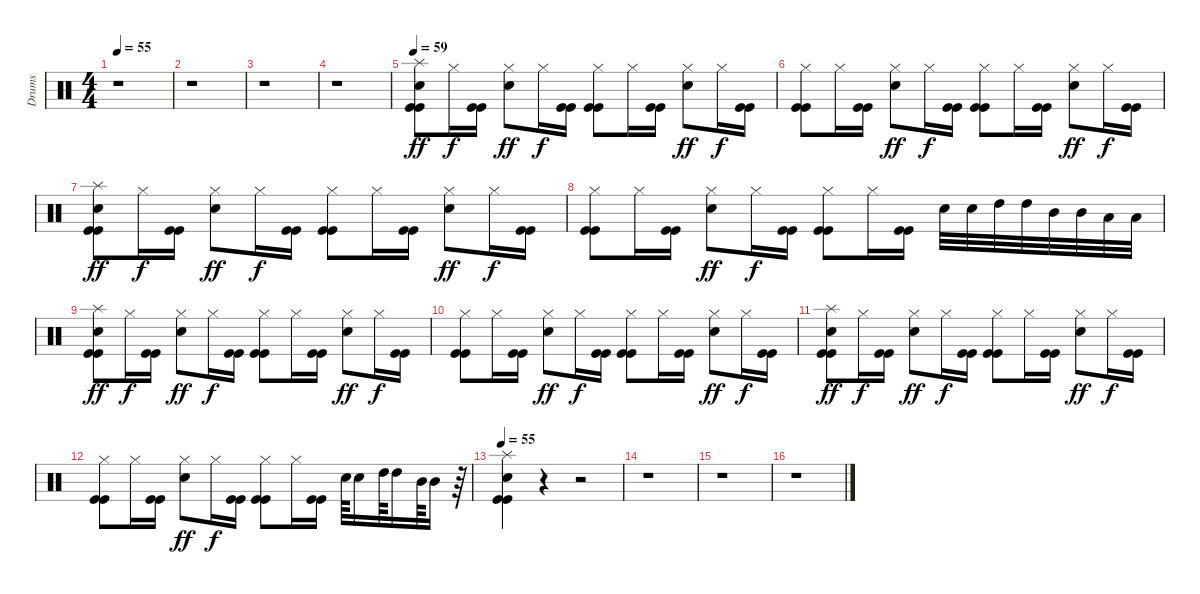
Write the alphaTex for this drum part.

\track ("Drums" "Drums") {instrument percussion}
\staff {score}
\articulation defaults
\ts (4 4)
\tempo 55
\clef neutral
\ks c
r.1{dy ff} |
r.1 |
r.1 |
r.1 |
\tempo 59
("Splash (hit)" "Snare (hit) 2" "Kick (hit)" "Kick (hit)").8 "Hi-Hat (closed)".16{dy f} ("Kick (hit)" "Kick (hit)").16 ("Hi-Hat (closed)" "Snare (hit) 2").8{dy ff} "Hi-Hat (closed)".16{dy f} ("Kick (hit)" "Kick (hit)").16 ("Hi-Hat (closed)" "Kick (hit)" "Kick (hit)").8 "Hi-Hat (closed)".16 ("Kick (hit)" "Kick (hit)").16 ("Hi-Hat (closed)" "Snare (hit) 2").8{dy ff} "Hi-Hat (closed)".16{dy f} ("Kick (hit)" "Kick (hit)").16 |
("Hi-Hat (closed)" "Kick (hit)" "Kick (hit)").8 "Hi-Hat (closed)".16 ("Kick (hit)" "Kick (hit)").16 ("Hi-Hat (closed)" "Snare (hit) 2").8{dy ff} "Hi-Hat (closed)".16{dy f} ("Kick (hit)" "Kick (hit)").16 ("Hi-Hat (closed)" "Kick (hit)" "Kick (hit)").8 "Hi-Hat (closed)".16 ("Kick (hit)" "Kick (hit)").16 ("Hi-Hat (closed)" "Snare (hit) 2").8{dy ff} "Hi-Hat (closed)".16{dy f} ("Kick (hit)" "Kick (hit)").16 |
("Splash (hit)" "Snare (hit) 2" "Kick (hit)" "Kick (hit)").8{dy ff} "Hi-Hat (closed)".16{dy f} ("Kick (hit)" "Kick (hit)").16 ("Hi-Hat (closed)" "Snare (hit) 2").8{dy ff} "Hi-Hat (closed)".16{dy f} ("Kick (hit)" "Kick (hit)").16 ("Hi-Hat (closed)" "Kick (hit)" "Kick (hit)").8 "Hi-Hat (closed)".16 ("Kick (hit)" "Kick (hit)").16 ("Hi-Hat (closed)" "Snare (hit) 2").8{dy ff} "Hi-Hat (closed)".16{dy f} ("Kick (hit)" "Kick (hit)").16 |
("Hi-Hat (closed)" "Kick (hit)" "Kick (hit)").8 "Hi-Hat (closed)".16 ("Kick (hit)" "Kick (hit)").16 ("Hi-Hat (closed)" "Snare (hit) 2").8{dy ff} "Hi-Hat (closed)".16{dy f} ("Kick (hit)" "Kick (hit)").16 ("Hi-Hat (closed)" "Kick (hit)" "Kick (hit)").8 "Hi-Hat (closed)".16 ("Kick (hit)" "Kick (hit)").16 "Snare (hit) 2".32 "Snare (hit) 2".32 "High Tom (hit)".32 "High Tom (hit)".32 "Mid Tom (hit)".32 "Mid Tom (hit)".32 "Low Tom (hit)".32 "Low Tom (hit)".32 |
("Splash (hit)" "Snare (hit) 2" "Kick (hit)" "Kick (hit)").8{dy ff} "Hi-Hat (closed)".16{dy f} ("Kick (hit)" "Kick (hit)").16 ("Hi-Hat (closed)" "Snare (hit) 2").8{dy ff} "Hi-Hat (closed)".16{dy f} ("Kick (hit)" "Kick (hit)").16 ("Hi-Hat (closed)" "Kick (hit)" "Kick (hit)").8 "Hi-Hat (closed)".16 ("Kick (hit)" "Kick (hit)").16 ("Hi-Hat (closed)" "Snare (hit) 2").8{dy ff} "Hi-Hat (closed)".16{dy f} ("Kick (hit)" "Kick (hit)").16 |
("Hi-Hat (closed)" "Kick (hit)" "Kick (hit)").8 "Hi-Hat (closed)".16 ("Kick (hit)" "Kick (hit)").16 ("Hi-Hat (closed)" "Snare (hit) 2").8{dy ff} "Hi-Hat (closed)".16{dy f} ("Kick (hit)" "Kick (hit)").16 ("Hi-Hat (closed)" "Kick (hit)" "Kick (hit)").8 "Hi-Hat (closed)".16 ("Kick (hit)" "Kick (hit)").16 ("Hi-Hat (closed)" "Snare (hit) 2").8{dy ff} "Hi-Hat (closed)".16{dy f} ("Kick (hit)" "Kick (hit)").16 |
("Splash (hit)" "Snare (hit) 2" "Kick (hit)" "Kick (hit)").8{dy ff} "Hi-Hat (closed)".16{dy f} ("Kick (hit)" "Kick (hit)").16 ("Hi-Hat (closed)" "Snare (hit) 2").8{dy ff} "Hi-Hat (closed)".16{dy f} ("Kick (hit)" "Kick (hit)").16 ("Hi-Hat (closed)" "Kick (hit)" "Kick (hit)").8 "Hi-Hat (closed)".16 ("Kick (hit)" "Kick (hit)").16 ("Hi-Hat (closed)" "Snare (hit) 2").8{dy ff} "Hi-Hat (closed)".16{dy f} ("Kick (hit)" "Kick (hit)").16 |
("Hi-Hat (closed)" "Kick (hit)" "Kick (hit)").8 "Hi-Hat (closed)".16 ("Kick (hit)" "Kick (hit)").16 ("Hi-Hat (closed)" "Snare (hit) 2").8{dy ff} "Hi-Hat (closed)".16{dy f} ("Kick (hit)" "Kick (hit)").16 ("Hi-Hat (closed)" "Kick (hit)" "Kick (hit)").8 "Hi-Hat (closed)".16 ("Kick (hit)" "Kick (hit)").16 "Snare (hit) 2".64 "Snare (hit) 2".16 "High Tom (hit)".64 "High Tom (hit)".16 "Mid Tom (hit)".64 "Mid Tom (hit)".16 r.64 |
\tempo 55
("Splash (hit)" "Snare (hit) 2" "Kick (hit)" "Kick (hit)").4 r.4 r.2 |
r.1 |
r.1 |
r.1
